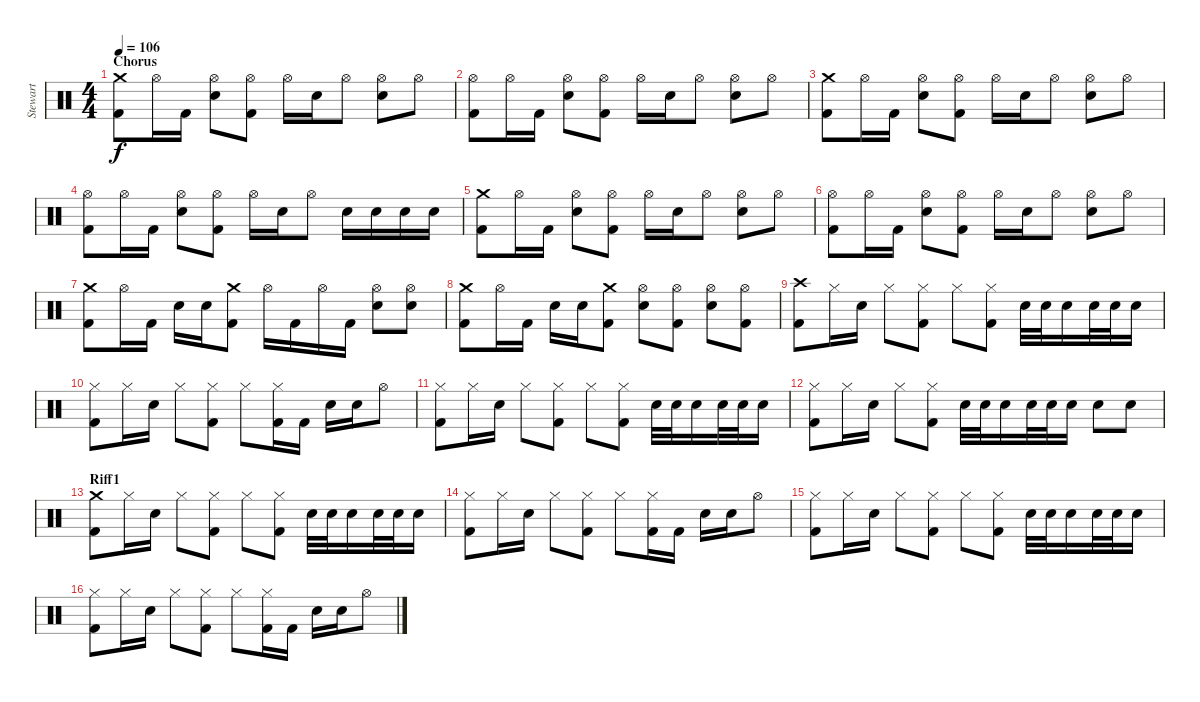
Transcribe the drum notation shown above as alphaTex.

\track ("Stewart" "Stewart") {instrument percussion}
\staff {score}
\articulation defaults
\ts (4 4)
\section ("" "Chorus")
\tempo 106
\clef neutral
\ks c
("Crash medium (hit)" "Kick (hit) 2").8{dy f} "Hi-Hat (open)".16 "Kick (hit) 2".16 ("Hi-Hat (open)" "Electric Snare (hit)").8 ("Hi-Hat (open)" "Kick (hit) 2").8 "Hi-Hat (open)".16 "Electric Snare (hit)".16 "Hi-Hat (open)".8 ("Hi-Hat (open)" "Electric Snare (hit)").8 "Hi-Hat (open)".8 |
("Hi-Hat (open)" "Kick (hit) 2").8 "Hi-Hat (open)".16 "Kick (hit) 2".16 ("Hi-Hat (open)" "Electric Snare (hit)").8 ("Hi-Hat (open)" "Kick (hit) 2").8 "Hi-Hat (open)".16 "Electric Snare (hit)".16 "Hi-Hat (open)".8 ("Hi-Hat (open)" "Electric Snare (hit)").8 "Hi-Hat (open)".8 |
("Crash medium (hit)" "Kick (hit) 2").8 "Hi-Hat (open)".16 "Kick (hit) 2".16 ("Hi-Hat (open)" "Electric Snare (hit)").8 ("Hi-Hat (open)" "Kick (hit) 2").8 "Hi-Hat (open)".16 "Electric Snare (hit)".16 "Hi-Hat (open)".8 ("Hi-Hat (open)" "Electric Snare (hit)").8 "Hi-Hat (open)".8 |
("Hi-Hat (open)" "Kick (hit) 2").8 "Hi-Hat (open)".16 "Kick (hit) 2".16 ("Hi-Hat (open)" "Electric Snare (hit)").8 ("Hi-Hat (open)" "Kick (hit) 2").8 "Hi-Hat (open)".16 "Electric Snare (hit)".16 "Hi-Hat (open)".8 "Electric Snare (hit)".16 "Electric Snare (hit)".16 "Electric Snare (hit)".16 "Electric Snare (hit)".16 |
("Crash medium (hit)" "Kick (hit) 2").8 "Hi-Hat (open)".16 "Kick (hit) 2".16 ("Hi-Hat (open)" "Electric Snare (hit)").8 ("Hi-Hat (open)" "Kick (hit) 2").8 "Hi-Hat (open)".16 "Electric Snare (hit)".16 "Hi-Hat (open)".8 ("Hi-Hat (open)" "Electric Snare (hit)").8 "Hi-Hat (open)".8 |
("Hi-Hat (open)" "Kick (hit) 2").8 "Hi-Hat (open)".16 "Kick (hit) 2".16 ("Hi-Hat (open)" "Electric Snare (hit)").8 ("Hi-Hat (open)" "Kick (hit) 2").8 "Hi-Hat (open)".16 "Electric Snare (hit)".16 "Hi-Hat (open)".8 ("Hi-Hat (open)" "Electric Snare (hit)").8 "Hi-Hat (open)".8 |
("Crash medium (hit)" "Kick (hit) 2").8 "Hi-Hat (open)".16 "Kick (hit) 2".16 "Electric Snare (hit)".16 "Electric Snare (hit)".16 ("Crash medium (hit)" "Kick (hit) 2").8 "Hi-Hat (open)".16 "Kick (hit) 2".16 "Hi-Hat (open)".16 "Kick (hit) 2".16 ("Hi-Hat (open)" "Electric Snare (hit)").8 ("Hi-Hat (open)" "Electric Snare (hit)").8 |
("Crash medium (hit)" "Kick (hit) 2").8 "Hi-Hat (open)".16 "Kick (hit) 2".16 "Electric Snare (hit)".16 "Electric Snare (hit)".16 ("Crash medium (hit)" "Kick (hit) 2").8 ("Hi-Hat (open)" "Electric Snare (hit)").8 ("Hi-Hat (open)" "Kick (hit) 2").8 ("Hi-Hat (open)" "Electric Snare (hit)").8 ("Hi-Hat (open)" "Kick (hit) 2").8 |
("Crash high (hit)" "Kick (hit) 2").8 "Hi-Hat (closed)".16 "Electric Snare (hit)".16 "Hi-Hat (closed)".8 ("Hi-Hat (closed)" "Kick (hit) 2").8 "Hi-Hat (closed)".8 ("Hi-Hat (closed)" "Kick (hit) 2").8 "Electric Snare (hit)".32 "Electric Snare (hit)".32 "Electric Snare (hit)".16 "Electric Snare (hit)".32 "Electric Snare (hit)".32 "Electric Snare (hit)".16 |
("Hi-Hat (closed)" "Kick (hit) 2").8 "Hi-Hat (closed)".16 "Electric Snare (hit)".16 "Hi-Hat (closed)".8 ("Hi-Hat (closed)" "Kick (hit) 2").8 "Hi-Hat (closed)".8 ("Hi-Hat (closed)" "Kick (hit) 2").16 "Kick (hit) 2".16 "Electric Snare (hit)".16 "Electric Snare (hit)".16 "Hi-Hat (open)".8 |
("Hi-Hat (closed)" "Kick (hit) 2").8 "Hi-Hat (closed)".16 "Electric Snare (hit)".16 "Hi-Hat (closed)".8 ("Hi-Hat (closed)" "Kick (hit) 2").8 "Hi-Hat (closed)".8 ("Hi-Hat (closed)" "Kick (hit) 2").8 "Electric Snare (hit)".32 "Electric Snare (hit)".32 "Electric Snare (hit)".16 "Electric Snare (hit)".32 "Electric Snare (hit)".32 "Electric Snare (hit)".16 |
("Hi-Hat (closed)" "Kick (hit) 2").8 "Hi-Hat (closed)".16 "Electric Snare (hit)".16 "Hi-Hat (closed)".8 ("Hi-Hat (closed)" "Kick (hit) 2").8 "Electric Snare (hit)".32 "Electric Snare (hit)".32 "Electric Snare (hit)".16 "Electric Snare (hit)".32 "Electric Snare (hit)".32 "Electric Snare (hit)".16 "Electric Snare (hit)".8 "Electric Snare (hit)".8 |
\section ("" "Riff1")
("Crash medium (hit)" "Kick (hit) 2").8 "Hi-Hat (closed)".16 "Electric Snare (hit)".16 "Hi-Hat (closed)".8 ("Hi-Hat (closed)" "Kick (hit) 2").8 "Hi-Hat (closed)".8 ("Hi-Hat (closed)" "Kick (hit) 2").8 "Electric Snare (hit)".32 "Electric Snare (hit)".32 "Electric Snare (hit)".16 "Electric Snare (hit)".32 "Electric Snare (hit)".32 "Electric Snare (hit)".16 |
("Hi-Hat (closed)" "Kick (hit) 2").8 "Hi-Hat (closed)".16 "Electric Snare (hit)".16 "Hi-Hat (closed)".8 ("Hi-Hat (closed)" "Kick (hit) 2").8 "Hi-Hat (closed)".8 ("Hi-Hat (closed)" "Kick (hit) 2").16 "Kick (hit) 2".16 "Electric Snare (hit)".16 "Electric Snare (hit)".16 "Hi-Hat (open)".8 |
("Hi-Hat (closed)" "Kick (hit) 2").8 "Hi-Hat (closed)".16 "Electric Snare (hit)".16 "Hi-Hat (closed)".8 ("Hi-Hat (closed)" "Kick (hit) 2").8 "Hi-Hat (closed)".8 ("Hi-Hat (closed)" "Kick (hit) 2").8 "Electric Snare (hit)".32 "Electric Snare (hit)".32 "Electric Snare (hit)".16 "Electric Snare (hit)".32 "Electric Snare (hit)".32 "Electric Snare (hit)".16 |
("Hi-Hat (closed)" "Kick (hit) 2").8 "Hi-Hat (closed)".16 "Electric Snare (hit)".16 "Hi-Hat (closed)".8 ("Hi-Hat (closed)" "Kick (hit) 2").8 "Hi-Hat (closed)".8 ("Hi-Hat (closed)" "Kick (hit) 2").16 "Kick (hit) 2".16 "Electric Snare (hit)".16 "Electric Snare (hit)".16 "Hi-Hat (open)".8
